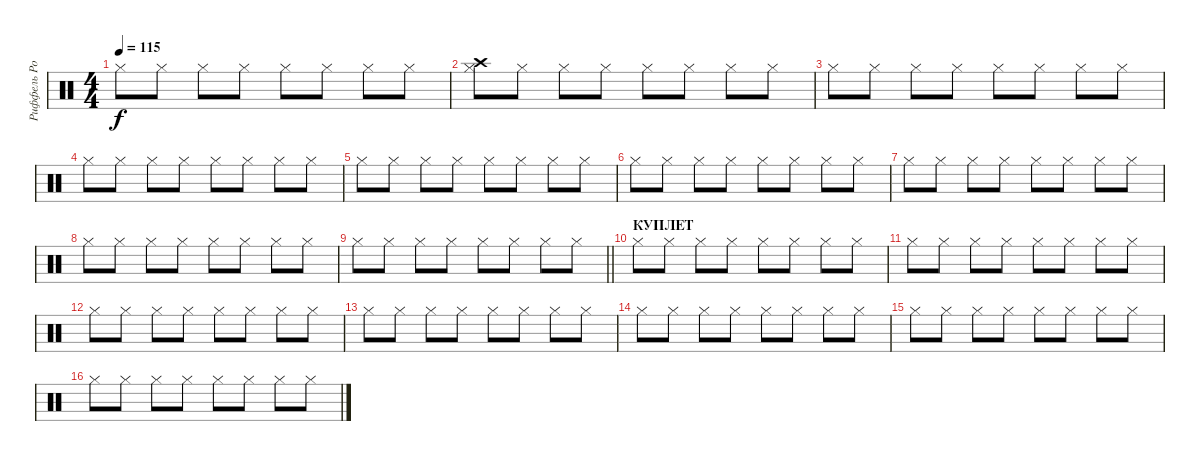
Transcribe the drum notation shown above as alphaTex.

\track ("Риффель Роман (хэты)" "Риффель Ро") {instrument percussion}
\staff {score}
\articulation defaults
\ts (4 4)
\tempo 115
\clef neutral
\ks c "Hi-Hat (closed)".8{dy f} "Hi-Hat (closed)".8 "Hi-Hat (closed)".8 "Hi-Hat (closed)".8 "Hi-Hat (closed)".8 "Hi-Hat (closed)".8 "Hi-Hat (closed)".8 "Hi-Hat (closed)".8
|
("Crash high (hit)" "Hi-Hat (closed)").8 "Hi-Hat (closed)".8 "Hi-Hat (closed)".8 "Hi-Hat (closed)".8 "Hi-Hat (closed)".8 "Hi-Hat (closed)".8 "Hi-Hat (closed)".8 "Hi-Hat (closed)".8 |
"Hi-Hat (closed)".8 "Hi-Hat (closed)".8 "Hi-Hat (closed)".8 "Hi-Hat (closed)".8 "Hi-Hat (closed)".8 "Hi-Hat (closed)".8 "Hi-Hat (closed)".8 "Hi-Hat (closed)".8 |
"Hi-Hat (closed)".8 "Hi-Hat (closed)".8 "Hi-Hat (closed)".8 "Hi-Hat (closed)".8 "Hi-Hat (closed)".8 "Hi-Hat (closed)".8 "Hi-Hat (closed)".8 "Hi-Hat (closed)".8 |
"Hi-Hat (closed)".8 "Hi-Hat (closed)".8 "Hi-Hat (closed)".8 "Hi-Hat (closed)".8 "Hi-Hat (closed)".8 "Hi-Hat (closed)".8 "Hi-Hat (closed)".8 "Hi-Hat (closed)".8 |
"Hi-Hat (closed)".8 "Hi-Hat (closed)".8 "Hi-Hat (closed)".8 "Hi-Hat (closed)".8 "Hi-Hat (closed)".8 "Hi-Hat (closed)".8 "Hi-Hat (closed)".8 "Hi-Hat (closed)".8 |
"Hi-Hat (closed)".8 "Hi-Hat (closed)".8 "Hi-Hat (closed)".8 "Hi-Hat (closed)".8 "Hi-Hat (closed)".8 "Hi-Hat (closed)".8 "Hi-Hat (closed)".8 "Hi-Hat (closed)".8 |
"Hi-Hat (closed)".8 "Hi-Hat (closed)".8 "Hi-Hat (closed)".8 "Hi-Hat (closed)".8 "Hi-Hat (closed)".8 "Hi-Hat (closed)".8 "Hi-Hat (closed)".8 "Hi-Hat (closed)".8 |
\barLineRight lightlight "Hi-Hat (closed)".8 "Hi-Hat (closed)".8 "Hi-Hat (closed)".8 "Hi-Hat (closed)".8 "Hi-Hat (closed)".8 "Hi-Hat (closed)".8 "Hi-Hat (closed)".8 "Hi-Hat (closed)".8
|
\section ("" "КУПЛЕТ")
"Hi-Hat (closed)".8 "Hi-Hat (closed)".8 "Hi-Hat (closed)".8 "Hi-Hat (closed)".8 "Hi-Hat (closed)".8 "Hi-Hat (closed)".8 "Hi-Hat (closed)".8 "Hi-Hat (closed)".8 |
"Hi-Hat (closed)".8 "Hi-Hat (closed)".8 "Hi-Hat (closed)".8 "Hi-Hat (closed)".8 "Hi-Hat (closed)".8 "Hi-Hat (closed)".8 "Hi-Hat (closed)".8 "Hi-Hat (closed)".8 |
"Hi-Hat (closed)".8 "Hi-Hat (closed)".8 "Hi-Hat (closed)".8 "Hi-Hat (closed)".8 "Hi-Hat (closed)".8 "Hi-Hat (closed)".8 "Hi-Hat (closed)".8 "Hi-Hat (closed)".8 |
"Hi-Hat (closed)".8 "Hi-Hat (closed)".8 "Hi-Hat (closed)".8 "Hi-Hat (closed)".8 "Hi-Hat (closed)".8 "Hi-Hat (closed)".8 "Hi-Hat (closed)".8 "Hi-Hat (closed)".8 |
"Hi-Hat (closed)".8 "Hi-Hat (closed)".8 "Hi-Hat (closed)".8 "Hi-Hat (closed)".8 "Hi-Hat (closed)".8 "Hi-Hat (closed)".8 "Hi-Hat (closed)".8 "Hi-Hat (closed)".8 |
"Hi-Hat (closed)".8 "Hi-Hat (closed)".8 "Hi-Hat (closed)".8 "Hi-Hat (closed)".8 "Hi-Hat (closed)".8 "Hi-Hat (closed)".8 "Hi-Hat (closed)".8 "Hi-Hat (closed)".8 |
"Hi-Hat (closed)".8 "Hi-Hat (closed)".8 "Hi-Hat (closed)".8 "Hi-Hat (closed)".8 "Hi-Hat (closed)".8 "Hi-Hat (closed)".8 "Hi-Hat (closed)".8 "Hi-Hat (closed)".8
